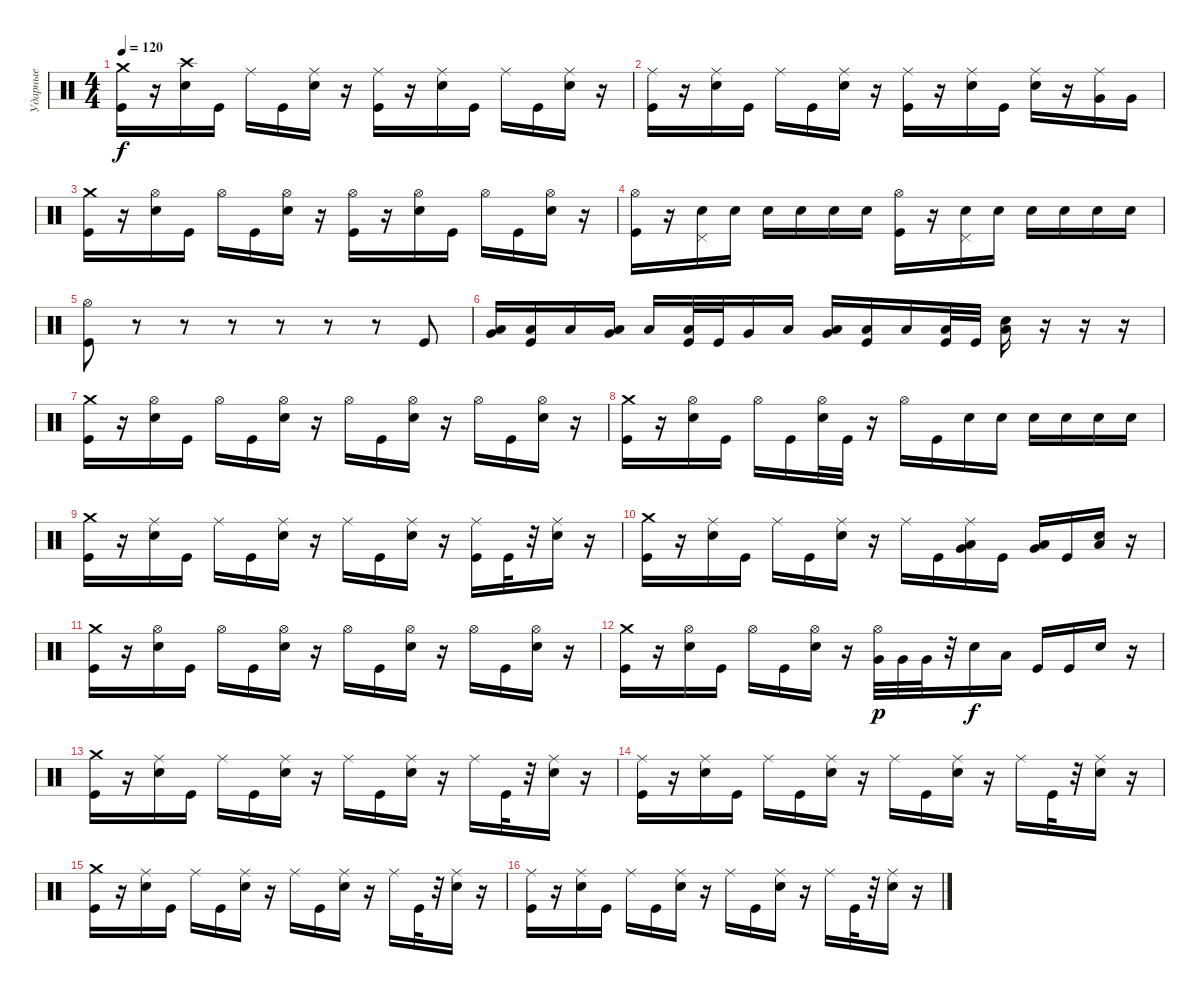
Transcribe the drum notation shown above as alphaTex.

\track ("Ударные" "Ударные") {solo instrument percussion}
\staff {score}
\articulation defaults
\ts (4 4)
\tempo 120
\clef neutral
\ks c
("Crash medium (hit)" "Kick (hit)").16{dy f} r.16 ("Crash high (hit)" "Snare (hit) 2").16 "Kick (hit)".16 "Ride (middle)".16 "Kick (hit)".16 ("Ride (middle)" "Snare (hit) 2").16 r.16 ("Ride (middle)" "Kick (hit)").16 r.16 ("Ride (middle)" "Snare (hit) 2").16 "Kick (hit)".16 "Ride (middle)".16 "Kick (hit)".16 ("Ride (middle)" "Snare (hit) 2").16 r.16 |
("Ride (middle)" "Kick (hit)").16 r.16 ("Ride (middle)" "Snare (hit) 2").16 "Kick (hit)".16 "Ride (middle)".16 "Kick (hit)".16 ("Ride (middle)" "Snare (hit) 2").16 r.16 ("Ride (middle)" "Kick (hit)").16 r.16 ("Ride (middle)" "Snare (hit) 2").16 "Kick (hit)".16 ("Ride (middle)" "Snare (hit) 2").16 r.16 ("Ride (middle)" "Very Low Tom (hit)").16 "Very Low Tom (hit)".16 |
("Crash medium (hit)" "Kick (hit)").16 r.16 ("Hi-Hat (open)" "Snare (hit) 2").16 "Kick (hit)".16 "Hi-Hat (open)".16 "Kick (hit)".16 ("Hi-Hat (open)" "Snare (hit) 2").16 r.16 ("Hi-Hat (open)" "Kick (hit)").16 r.16 ("Hi-Hat (open)" "Snare (hit) 2").16 "Kick (hit)".16 "Hi-Hat (open)".16 "Kick (hit)".16 ("Hi-Hat (open)" "Snare (hit) 2").16 r.16 |
("Hi-Hat (open)" "Kick (hit)").16 r.16 ("Pedal Hi-Hat (hit)" "Snare (hit) 2").16 "Snare (hit) 2".16 "Snare (hit) 2".16 "Snare (hit) 2".16 "Snare (hit) 2".16 "Snare (hit) 2".16 ("Hi-Hat (open)" "Kick (hit)").16 r.16 ("Pedal Hi-Hat (hit)" "Snare (hit) 2").16 "Snare (hit) 2".16 "Snare (hit) 2".16 "Snare (hit) 2".16 "Snare (hit) 2".16 "Snare (hit) 2".16 |
("Hi-Hat (open)" "Kick (hit)").8 r.8 r.8 r.8 r.8 r.8 r.8 "Kick (hit)".8 |
("Low Floor Tom (hit)" "Very Low Tom (hit)").16 ("Low Floor Tom (hit)" "Kick (hit)").16 "Low Floor Tom (hit)".16 ("Low Floor Tom (hit)" "Very Low Tom (hit)").16 "Low Floor Tom (hit)".16 ("Low Floor Tom (hit)" "Kick (hit)").32 "Kick (hit)".32 "Very Low Tom (hit)".16 "Low Floor Tom (hit)".16 ("Low Floor Tom (hit)" "Very Low Tom (hit)").16 ("Low Floor Tom (hit)" "Kick (hit)").16 "Low Floor Tom (hit)".16 ("Low Floor Tom (hit)" "Kick (hit)").32 "Kick (hit)".32 ("Low Floor Tom (hit)" "Snare (hit) 2").16 r.16 r.16 r.16 |
("Crash medium (hit)" "Kick (hit)").16 r.16 ("Hi-Hat (open)" "Snare (hit) 2").16 "Kick (hit)".16 "Hi-Hat (open)".16 "Kick (hit)".16 ("Hi-Hat (open)" "Snare (hit) 2").16 r.16 "Hi-Hat (open)".16 "Kick (hit)".16 ("Hi-Hat (open)" "Snare (hit) 2").16 r.16 "Hi-Hat (open)".16 "Kick (hit)".16 ("Hi-Hat (open)" "Snare (hit) 2").16 r.16 |
("Crash medium (hit)" "Kick (hit)").16 r.16 ("Hi-Hat (open)" "Snare (hit) 2").16 "Kick (hit)".16 "Hi-Hat (open)".16 "Kick (hit)".16 ("Hi-Hat (open)" "Snare (hit) 2").32 "Kick (hit)".32 r.16 "Hi-Hat (open)".16 "Kick (hit)".16 "Snare (hit) 2".16 "Snare (hit) 2".16 "Snare (hit) 2".16 "Snare (hit) 2".16 "Snare (hit) 2".16 "Snare (hit) 2".16 |
("Crash medium (hit)" "Kick (hit)").16 r.16 ("Ride (middle)" "Snare (hit) 2").16 "Kick (hit)".16 "Ride (middle)".16 "Kick (hit)".16 ("Ride (middle)" "Snare (hit) 2").16 r.16 "Ride (middle)".16 "Kick (hit)".16 ("Ride (middle)" "Snare (hit) 2").16 r.16 ("Ride (middle)" "Kick (hit)").16 "Kick (hit)".32 r.32 ("Ride (middle)" "Snare (hit) 2").16 r.16 |
("Crash medium (hit)" "Kick (hit)").16 r.16 ("Ride (middle)" "Snare (hit) 2").16 "Kick (hit)".16 "Ride (middle)".16 "Kick (hit)".16 ("Ride (middle)" "Snare (hit) 2").16 r.16 "Ride (middle)".16 "Kick (hit)".16 ("Ride (middle)" "Low Floor Tom (hit)" "Very Low Tom (hit)").16 "Kick (hit)".16 ("Low Floor Tom (hit)" "Very Low Tom (hit)").16 "Kick (hit)".16 ("Low Floor Tom (hit)" "Snare (hit) 2").16 r.16 |
("Crash medium (hit)" "Kick (hit)").16 r.16 ("Hi-Hat (open)" "Snare (hit) 2").16 "Kick (hit)".16 "Hi-Hat (open)".16 "Kick (hit)".16 ("Hi-Hat (open)" "Snare (hit) 2").16 r.16 "Hi-Hat (open)".16 "Kick (hit)".16 ("Hi-Hat (open)" "Snare (hit) 2").16 r.16 "Hi-Hat (open)".16 "Kick (hit)".16 ("Hi-Hat (open)" "Snare (hit) 2").16 r.16 |
("Crash medium (hit)" "Kick (hit)").16 r.16 ("Hi-Hat (open)" "Snare (hit) 2").16 "Kick (hit)".16 "Hi-Hat (open)".16 "Kick (hit)".16 ("Hi-Hat (open)" "Snare (hit) 2").16 r.16 ("Hi-Hat (open)" "Very Low Tom (hit)").32{dy p} "Very Low Tom (hit)".32 "Very Low Tom (hit)".32 r.32 "Snare (hit) 2".16{dy f} "Low Floor Tom (hit)".16 "Kick (hit)".16 "Kick (hit)".16 "Snare (hit) 2".16 r.16 |
("Crash medium (hit)" "Kick (hit)").16 r.16 ("Ride (middle)" "Snare (hit) 2").16 "Kick (hit)".16 "Ride (middle)".16 "Kick (hit)".16 ("Ride (middle)" "Snare (hit) 2").16 r.16 "Ride (middle)".16 "Kick (hit)".16 ("Ride (middle)" "Snare (hit) 2").16 r.16 "Ride (middle)".16 "Kick (hit)".32 r.32 ("Ride (middle)" "Snare (hit) 2").16 r.16 |
("Ride (middle)" "Kick (hit)").16 r.16 ("Ride (middle)" "Snare (hit) 2").16 "Kick (hit)".16 "Ride (middle)".16 "Kick (hit)".16 ("Ride (middle)" "Snare (hit) 2").16 r.16 "Ride (middle)".16 "Kick (hit)".16 ("Ride (middle)" "Snare (hit) 2").16 r.16 "Ride (middle)".16 "Kick (hit)".32 r.32 ("Ride (middle)" "Snare (hit) 2").16 r.16 |
("Crash medium (hit)" "Kick (hit)").16 r.16 ("Ride (middle)" "Snare (hit) 2").16 "Kick (hit)".16 "Ride (middle)".16 "Kick (hit)".16 ("Ride (middle)" "Snare (hit) 2").16 r.16 "Ride (middle)".16 "Kick (hit)".16 ("Ride (middle)" "Snare (hit) 2").16 r.16 "Ride (middle)".16 "Kick (hit)".32 r.32 ("Ride (middle)" "Snare (hit) 2").16 r.16 |
("Ride (middle)" "Kick (hit)").16 r.16 ("Ride (middle)" "Snare (hit) 2").16 "Kick (hit)".16 "Ride (middle)".16 "Kick (hit)".16 ("Ride (middle)" "Snare (hit) 2").16 r.16 "Ride (middle)".16 "Kick (hit)".16 ("Ride (middle)" "Snare (hit) 2").16 r.16 "Ride (middle)".16 "Kick (hit)".32 r.32 ("Ride (middle)" "Snare (hit) 2").16 r.16
